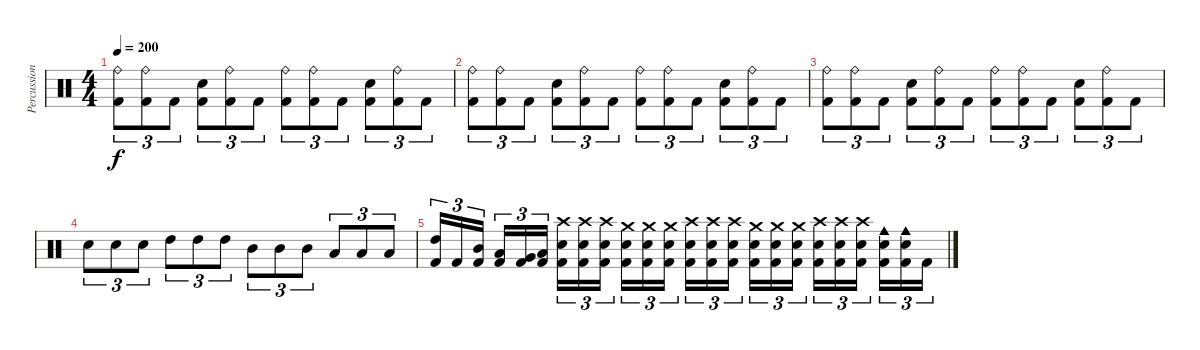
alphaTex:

\track ("Percussion" "Percussion") {instrument percussion}
\staff {score}
\articulation defaults
\ts (4 4)
\tempo 200
\clef neutral
\ks c
("Ride (bell)" "Kick (hit) 2").8{tu (3 2) dy f} ("Ride (bell)" "Kick (hit) 2").8{tu (3 2)} "Kick (hit) 2".8{tu (3 2)} ("Electric Snare (hit)" "Kick (hit) 2").8{tu (3 2)} ("Ride (bell)" "Kick (hit) 2").8{tu (3 2)} "Kick (hit) 2".8{tu (3 2)} ("Ride (bell)" "Kick (hit) 2").8{tu (3 2)} ("Ride (bell)" "Kick (hit) 2").8{tu (3 2)} "Kick (hit) 2".8{tu (3 2)} ("Electric Snare (hit)" "Kick (hit) 2").8{tu (3 2)} ("Ride (bell)" "Kick (hit) 2").8{tu (3 2)} "Kick (hit) 2".8{tu (3 2)} |
("Ride (bell)" "Kick (hit) 2").8{tu (3 2)} ("Ride (bell)" "Kick (hit) 2").8{tu (3 2)} "Kick (hit) 2".8{tu (3 2)} ("Electric Snare (hit)" "Kick (hit) 2").8{tu (3 2)} ("Ride (bell)" "Kick (hit) 2").8{tu (3 2)} "Kick (hit) 2".8{tu (3 2)} ("Ride (bell)" "Kick (hit) 2").8{tu (3 2)} ("Ride (bell)" "Kick (hit) 2").8{tu (3 2)} "Kick (hit) 2".8{tu (3 2)} ("Electric Snare (hit)" "Kick (hit) 2").8{tu (3 2)} ("Ride (bell)" "Kick (hit) 2").8{tu (3 2)} "Kick (hit) 2".8{tu (3 2)} |
("Ride (bell)" "Kick (hit) 2").8{tu (3 2)} ("Ride (bell)" "Kick (hit) 2").8{tu (3 2)} "Kick (hit) 2".8{tu (3 2)} ("Electric Snare (hit)" "Kick (hit) 2").8{tu (3 2)} ("Ride (bell)" "Kick (hit) 2").8{tu (3 2)} "Kick (hit) 2".8{tu (3 2)} ("Ride (bell)" "Kick (hit) 2").8{tu (3 2)} ("Ride (bell)" "Kick (hit) 2").8{tu (3 2)} "Kick (hit) 2".8{tu (3 2)} ("Electric Snare (hit)" "Kick (hit) 2").8{tu (3 2)} ("Ride (bell)" "Kick (hit) 2").8{tu (3 2)} "Kick (hit) 2".8{tu (3 2)} |
"Electric Snare (hit)".8{tu (3 2)} "Electric Snare (hit)".8{tu (3 2)} "Electric Snare (hit)".8{tu (3 2)} "High Tom (hit)".8{tu (3 2)} "High Tom (hit)".8{tu (3 2)} "High Tom (hit)".8{tu (3 2)} "Mid Tom (hit)".8{tu (3 2)} "Mid Tom (hit)".8{tu (3 2)} "Mid Tom (hit)".8{tu (3 2)} "Low Tom (hit)".8{tu (3 2)} "Low Tom (hit)".8{tu (3 2)} "Low Tom (hit)".8{tu (3 2)} |
("High Tom (hit)" "Kick (hit) 2").16{tu (3 2)} "Kick (hit) 2".16{tu (3 2)} ("Mid Tom (hit)" "Kick (hit) 2").16{tu (3 2)} ("Low Tom (hit)" "Kick (hit) 2").16{tu (3 2)} ("Very Low Tom (hit)" "Kick (hit) 2").16{tu (3 2)} ("Low Floor Tom (hit)" "Kick (hit) 2").16{tu (3 2)} ("Crash high (hit)" "Electric Snare (hit)" "Kick (hit) 2").16{tu (3 2)} ("Crash high (hit)" "Electric Snare (hit)" "Kick (hit) 2").16{tu (3 2)} ("Crash high (hit)" "Electric Snare (hit)" "Kick (hit) 2").16{tu (3 2)} ("Crash medium (hit)" "Electric Snare (hit)" "Kick (hit) 2").16{tu (3 2)} ("Crash medium (hit)" "Electric Snare (hit)" "Kick (hit) 2").16{tu (3 2)} ("Crash medium (hit)" "Electric Snare (hit)" "Kick (hit) 2").16{tu (3 2)} ("Crash high (hit)" "Electric Snare (hit)" "Kick (hit) 2").16{tu (3 2)} ("Crash high (hit)" "Electric Snare (hit)" "Kick (hit) 2").16{tu (3 2)} ("Crash high (hit)" "Electric Snare (hit)" "Kick (hit) 2").16{tu (3 2)} ("Crash medium (hit)" "Electric Snare (hit)" "Kick (hit) 2").16{tu (3 2)} ("Crash medium (hit)" "Electric Snare (hit)" "Kick (hit) 2").16{tu (3 2)} ("Crash medium (hit)" "Electric Snare (hit)" "Kick (hit) 2").16{tu (3 2)} ("Crash high (hit)" "Electric Snare (hit)" "Kick (hit) 2").16{tu (3 2)} ("Crash high (hit)" "Electric Snare (hit)" "Kick (hit) 2").16{tu (3 2)} ("Crash high (hit)" "Electric Snare (hit)" "Kick (hit) 2").16{tu (3 2)} ("Cowbell medium (hit)" "Electric Snare (hit)" "Kick (hit) 2").16{tu (3 2)} ("Cowbell medium (hit)" "Electric Snare (hit)" "Kick (hit) 2").16{tu (3 2)} "Kick (hit) 2".16{tu (3 2)}
